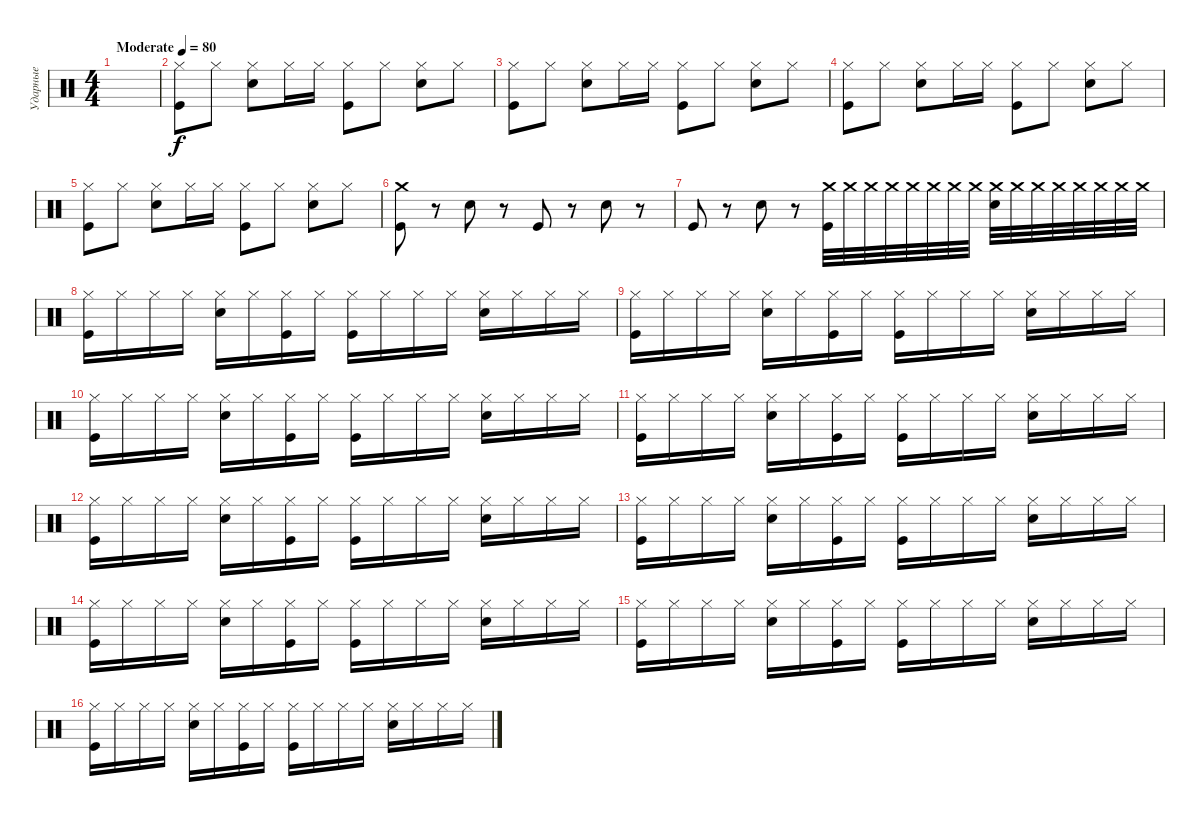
\track ("Ударные" "Ударные") {instrument percussion}
\staff {score}
\articulation defaults
\ts (4 4)
\tempo (80 "Moderate")
\clef neutral
\ks c
|
("Kick (hit)" "Hi-Hat (closed)").8 "Hi-Hat (closed)".8 ("Snare (hit) 2" "Hi-Hat (closed)").8 "Hi-Hat (closed)".16 "Hi-Hat (closed)".16 ("Kick (hit)" "Hi-Hat (closed)").8 "Hi-Hat (closed)".8 ("Snare (hit) 2" "Hi-Hat (closed)").8 "Hi-Hat (closed)".8 |
("Kick (hit)" "Hi-Hat (closed)").8 "Hi-Hat (closed)".8 ("Snare (hit) 2" "Hi-Hat (closed)").8 "Hi-Hat (closed)".16 "Hi-Hat (closed)".16 ("Kick (hit)" "Hi-Hat (closed)").8 "Hi-Hat (closed)".8 ("Snare (hit) 2" "Hi-Hat (closed)").8 "Hi-Hat (closed)".8 |
("Kick (hit)" "Hi-Hat (closed)").8 "Hi-Hat (closed)".8 ("Snare (hit) 2" "Hi-Hat (closed)").8 "Hi-Hat (closed)".16 "Hi-Hat (closed)".16 ("Kick (hit)" "Hi-Hat (closed)").8 "Hi-Hat (closed)".8 ("Snare (hit) 2" "Hi-Hat (closed)").8 "Hi-Hat (closed)".8 |
("Kick (hit)" "Hi-Hat (closed)").8 "Hi-Hat (closed)".8 ("Snare (hit) 2" "Hi-Hat (closed)").8 "Hi-Hat (closed)".16 "Hi-Hat (closed)".16 ("Kick (hit)" "Hi-Hat (closed)").8 "Hi-Hat (closed)".8 ("Snare (hit) 2" "Hi-Hat (closed)").8 "Hi-Hat (closed)".8 |
("Kick (hit)" "Crash medium (hit)").8 r.8 "Snare (hit) 2".8{volume 5} r.8 "Kick (hit)".8 r.8 "Snare (hit) 2".8 r.8 |
"Kick (hit)".8 r.8 "Snare (hit) 2".8 r.8 ("Kick (hit)" "Crash medium (hit)").32{volume 13} "Crash medium (hit)".32 "Crash medium (hit)".32 "Crash medium (hit)".32 "Crash medium (hit)".32 "Crash medium (hit)".32 "Crash medium (hit)".32 "Crash medium (hit)".32 ("Snare (hit) 2" "Crash medium (hit)").32 "Crash medium (hit)".32 "Crash medium (hit)".32 "Crash medium (hit)".32 "Crash medium (hit)".32 "Crash medium (hit)".32 "Crash medium (hit)".32 "Crash medium (hit)".32 |
("Kick (hit)" "Hi-Hat (closed)").16 "Hi-Hat (closed)".16 "Hi-Hat (closed)".16 "Hi-Hat (closed)".16 ("Snare (hit) 2" "Hi-Hat (closed)").16 "Hi-Hat (closed)".16 ("Kick (hit)" "Hi-Hat (closed)").16 "Hi-Hat (closed)".16 ("Kick (hit)" "Hi-Hat (closed)").16 "Hi-Hat (closed)".16 "Hi-Hat (closed)".16 "Hi-Hat (closed)".16 ("Snare (hit) 2" "Hi-Hat (closed)").16 "Hi-Hat (closed)".16 "Hi-Hat (closed)".16 "Hi-Hat (closed)".16 |
("Kick (hit)" "Hi-Hat (closed)").16 "Hi-Hat (closed)".16 "Hi-Hat (closed)".16 "Hi-Hat (closed)".16 ("Snare (hit) 2" "Hi-Hat (closed)").16 "Hi-Hat (closed)".16 ("Kick (hit)" "Hi-Hat (closed)").16 "Hi-Hat (closed)".16 ("Kick (hit)" "Hi-Hat (closed)").16 "Hi-Hat (closed)".16 "Hi-Hat (closed)".16 "Hi-Hat (closed)".16 ("Snare (hit) 2" "Hi-Hat (closed)").16 "Hi-Hat (closed)".16 "Hi-Hat (closed)".16 "Hi-Hat (closed)".16 |
("Kick (hit)" "Hi-Hat (closed)").16 "Hi-Hat (closed)".16 "Hi-Hat (closed)".16 "Hi-Hat (closed)".16 ("Snare (hit) 2" "Hi-Hat (closed)").16 "Hi-Hat (closed)".16 ("Kick (hit)" "Hi-Hat (closed)").16 "Hi-Hat (closed)".16 ("Kick (hit)" "Hi-Hat (closed)").16 "Hi-Hat (closed)".16 "Hi-Hat (closed)".16 "Hi-Hat (closed)".16 ("Snare (hit) 2" "Hi-Hat (closed)").16 "Hi-Hat (closed)".16 "Hi-Hat (closed)".16 "Hi-Hat (closed)".16 |
("Kick (hit)" "Hi-Hat (closed)").16 "Hi-Hat (closed)".16 "Hi-Hat (closed)".16 "Hi-Hat (closed)".16 ("Snare (hit) 2" "Hi-Hat (closed)").16 "Hi-Hat (closed)".16 ("Kick (hit)" "Hi-Hat (closed)").16 "Hi-Hat (closed)".16 ("Kick (hit)" "Hi-Hat (closed)").16 "Hi-Hat (closed)".16 "Hi-Hat (closed)".16 "Hi-Hat (closed)".16 ("Snare (hit) 2" "Hi-Hat (closed)").16 "Hi-Hat (closed)".16 "Hi-Hat (closed)".16 "Hi-Hat (closed)".16 |
("Kick (hit)" "Hi-Hat (closed)").16 "Hi-Hat (closed)".16 "Hi-Hat (closed)".16 "Hi-Hat (closed)".16 ("Snare (hit) 2" "Hi-Hat (closed)").16 "Hi-Hat (closed)".16 ("Kick (hit)" "Hi-Hat (closed)").16 "Hi-Hat (closed)".16 ("Kick (hit)" "Hi-Hat (closed)").16 "Hi-Hat (closed)".16 "Hi-Hat (closed)".16 "Hi-Hat (closed)".16 ("Snare (hit) 2" "Hi-Hat (closed)").16 "Hi-Hat (closed)".16 "Hi-Hat (closed)".16 "Hi-Hat (closed)".16 |
("Kick (hit)" "Hi-Hat (closed)").16 "Hi-Hat (closed)".16 "Hi-Hat (closed)".16 "Hi-Hat (closed)".16 ("Snare (hit) 2" "Hi-Hat (closed)").16 "Hi-Hat (closed)".16 ("Kick (hit)" "Hi-Hat (closed)").16 "Hi-Hat (closed)".16 ("Kick (hit)" "Hi-Hat (closed)").16 "Hi-Hat (closed)".16 "Hi-Hat (closed)".16 "Hi-Hat (closed)".16 ("Snare (hit) 2" "Hi-Hat (closed)").16 "Hi-Hat (closed)".16 "Hi-Hat (closed)".16 "Hi-Hat (closed)".16 |
("Kick (hit)" "Hi-Hat (closed)").16 "Hi-Hat (closed)".16 "Hi-Hat (closed)".16 "Hi-Hat (closed)".16 ("Snare (hit) 2" "Hi-Hat (closed)").16 "Hi-Hat (closed)".16 ("Kick (hit)" "Hi-Hat (closed)").16 "Hi-Hat (closed)".16 ("Kick (hit)" "Hi-Hat (closed)").16 "Hi-Hat (closed)".16 "Hi-Hat (closed)".16 "Hi-Hat (closed)".16 ("Snare (hit) 2" "Hi-Hat (closed)").16 "Hi-Hat (closed)".16 "Hi-Hat (closed)".16 "Hi-Hat (closed)".16 |
("Kick (hit)" "Hi-Hat (closed)").16 "Hi-Hat (closed)".16 "Hi-Hat (closed)".16 "Hi-Hat (closed)".16 ("Snare (hit) 2" "Hi-Hat (closed)").16 "Hi-Hat (closed)".16 ("Kick (hit)" "Hi-Hat (closed)").16 "Hi-Hat (closed)".16 ("Kick (hit)" "Hi-Hat (closed)").16 "Hi-Hat (closed)".16 "Hi-Hat (closed)".16 "Hi-Hat (closed)".16 ("Snare (hit) 2" "Hi-Hat (closed)").16 "Hi-Hat (closed)".16 "Hi-Hat (closed)".16 "Hi-Hat (closed)".16 |
("Kick (hit)" "Hi-Hat (closed)").16 "Hi-Hat (closed)".16 "Hi-Hat (closed)".16 "Hi-Hat (closed)".16 ("Snare (hit) 2" "Hi-Hat (closed)").16 "Hi-Hat (closed)".16 ("Kick (hit)" "Hi-Hat (closed)").16 "Hi-Hat (closed)".16 ("Kick (hit)" "Hi-Hat (closed)").16 "Hi-Hat (closed)".16 "Hi-Hat (closed)".16 "Hi-Hat (closed)".16 ("Snare (hit) 2" "Hi-Hat (closed)").16 "Hi-Hat (closed)".16 "Hi-Hat (closed)".16 "Hi-Hat (closed)".16
